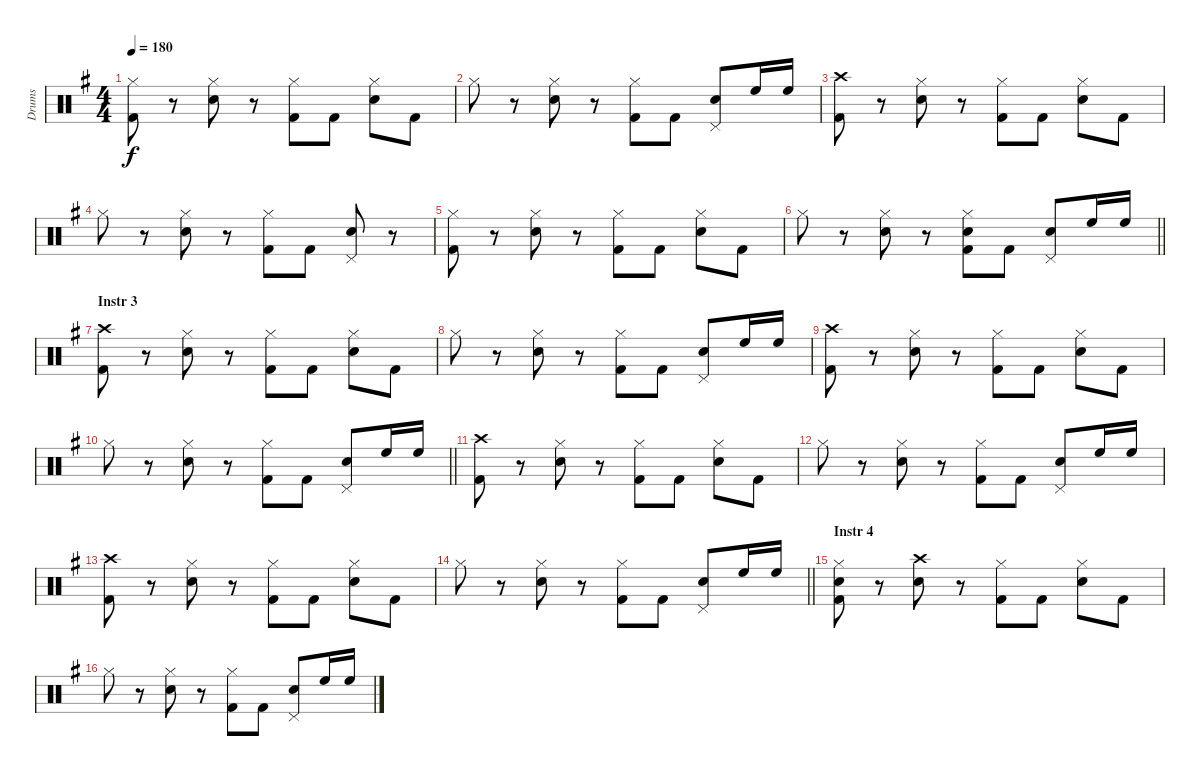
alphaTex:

\track ("Drums" "Drums") {instrument percussion bank 255}
\staff {score}
\articulation defaults
\ts (4 4)
\tempo 180
\clef neutral
\ks g
("Hi-Hat (closed)" "Kick (hit) 2").8{dy f} r.8 ("Hi-Hat (closed)" "Snare (hit) 2").8 r.8 ("Hi-Hat (closed)" "Kick (hit) 2").8 "Kick (hit) 2".8 ("Hi-Hat (closed)" "Snare (hit) 2").8 "Kick (hit) 2".8 |
"Hi-Hat (closed)".8 r.8 ("Hi-Hat (closed)" "Snare (hit) 2").8 r.8 ("Hi-Hat (closed)" "Kick (hit) 2").8 "Kick (hit) 2".8 ("Pedal Hi-Hat (hit)" "Snare (hit) 2").8 "High Floor Tom (hit)".16 "High Floor Tom (hit)".16 |
("Crash high (hit)" "Kick (hit) 2").8 r.8 ("Hi-Hat (closed)" "Snare (hit) 2").8 r.8 ("Hi-Hat (closed)" "Kick (hit) 2").8 "Kick (hit) 2".8 ("Hi-Hat (closed)" "Snare (hit) 2").8 "Kick (hit) 2".8 |
"Hi-Hat (closed)".8 r.8 ("Hi-Hat (closed)" "Snare (hit) 2").8 r.8 ("Hi-Hat (closed)" "Kick (hit) 2").8 "Kick (hit) 2".8 ("Pedal Hi-Hat (hit)" "Snare (hit) 2").8 r.8 |
("Hi-Hat (closed)" "Kick (hit) 2").8 r.8 ("Hi-Hat (closed)" "Snare (hit) 2").8 r.8 ("Hi-Hat (closed)" "Kick (hit) 2").8 "Kick (hit) 2".8 ("Hi-Hat (closed)" "Snare (hit) 2").8 "Kick (hit) 2".8 |
\barLineRight lightlight "Hi-Hat (closed)".8
r.8 ("Hi-Hat (closed)" "Snare (hit) 2").8 r.8 ("Hi-Hat (closed)" "Snare (hit) 2" "Kick (hit) 2").8 "Kick (hit) 2".8 ("Pedal Hi-Hat (hit)" "Snare (hit) 2").8 "High Floor Tom (hit)".16 "High Floor Tom (hit)".16 |
\section ("" "Instr 3")
("Crash high (hit)" "Kick (hit) 2").8 r.8 ("Hi-Hat (closed)" "Snare (hit) 2").8 r.8 ("Hi-Hat (closed)" "Kick (hit) 2").8 "Kick (hit) 2".8 ("Hi-Hat (closed)" "Snare (hit) 2").8 "Kick (hit) 2".8 |
"Hi-Hat (closed)".8 r.8 ("Hi-Hat (closed)" "Snare (hit) 2").8 r.8 ("Hi-Hat (closed)" "Kick (hit) 2").8 "Kick (hit) 2".8 ("Pedal Hi-Hat (hit)" "Snare (hit) 2").8 "High Floor Tom (hit)".16 "High Floor Tom (hit)".16 |
("Crash high (hit)" "Kick (hit) 2").8 r.8 ("Hi-Hat (closed)" "Snare (hit) 2").8 r.8 ("Hi-Hat (closed)" "Kick (hit) 2").8 "Kick (hit) 2".8 ("Hi-Hat (closed)" "Snare (hit) 2").8 "Kick (hit) 2".8 |
\barLineRight lightlight "Hi-Hat (closed)".8
r.8 ("Hi-Hat (closed)" "Snare (hit) 2").8 r.8 ("Hi-Hat (closed)" "Kick (hit) 2").8 "Kick (hit) 2".8 ("Pedal Hi-Hat (hit)" "Snare (hit) 2").8 "High Floor Tom (hit)".16 "High Floor Tom (hit)".16 |
\section ("" "")
("Crash high (hit)" "Kick (hit) 2").8 r.8 ("Hi-Hat (closed)" "Snare (hit) 2").8 r.8 ("Hi-Hat (closed)" "Kick (hit) 2").8 "Kick (hit) 2".8 ("Hi-Hat (closed)" "Snare (hit) 2").8 "Kick (hit) 2".8 |
"Hi-Hat (closed)".8 r.8 ("Hi-Hat (closed)" "Snare (hit) 2").8 r.8 ("Hi-Hat (closed)" "Kick (hit) 2").8 "Kick (hit) 2".8 ("Pedal Hi-Hat (hit)" "Snare (hit) 2").8 "High Floor Tom (hit)".16 "High Floor Tom (hit)".16 |
("Crash high (hit)" "Kick (hit) 2").8 r.8 ("Hi-Hat (closed)" "Snare (hit) 2").8 r.8 ("Hi-Hat (closed)" "Kick (hit) 2").8 "Kick (hit) 2".8 ("Hi-Hat (closed)" "Snare (hit) 2").8 "Kick (hit) 2".8 |
\barLineRight lightlight "Hi-Hat (closed)".8
r.8 ("Hi-Hat (closed)" "Snare (hit) 2").8 r.8 ("Hi-Hat (closed)" "Kick (hit) 2").8 "Kick (hit) 2".8 ("Pedal Hi-Hat (hit)" "Snare (hit) 2").8 "High Floor Tom (hit)".16 "High Floor Tom (hit)".16 |
\section ("" "Instr 4")
("Hi-Hat (closed)" "Snare (hit) 2" "Kick (hit) 2").8 r.8 ("Crash high (hit)" "Snare (hit) 2").8 r.8 ("Hi-Hat (closed)" "Kick (hit) 2").8 "Kick (hit) 2".8 ("Hi-Hat (closed)" "Snare (hit) 2").8 "Kick (hit) 2".8 |
"Hi-Hat (closed)".8 r.8 ("Hi-Hat (closed)" "Snare (hit) 2").8 r.8 ("Hi-Hat (closed)" "Kick (hit) 2").8 "Kick (hit) 2".8 ("Pedal Hi-Hat (hit)" "Snare (hit) 2").8 "High Floor Tom (hit)".16 "High Floor Tom (hit)".16
